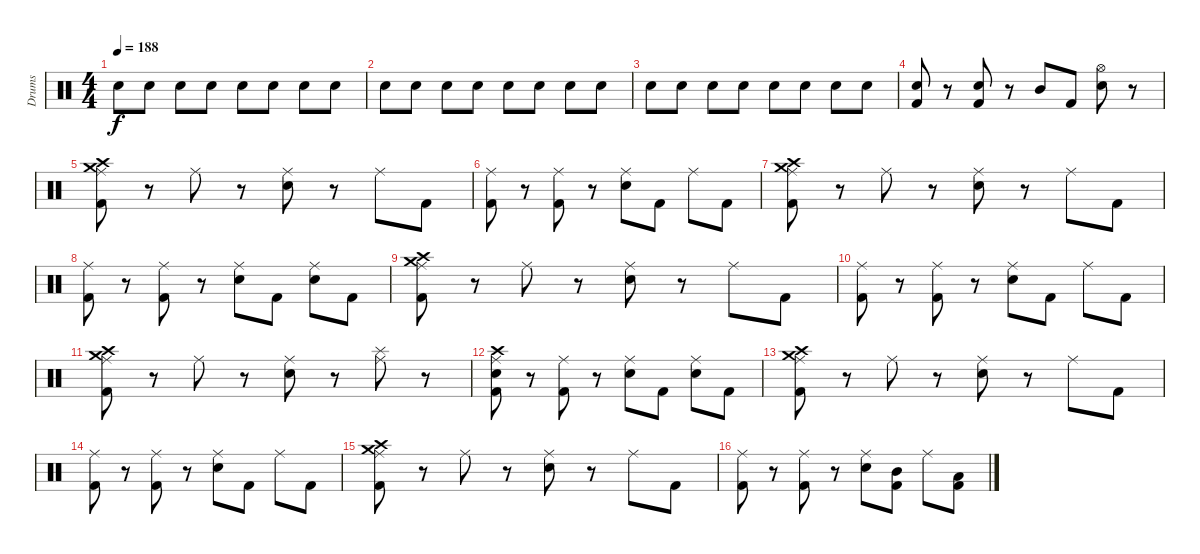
\track ("Drums" "Drums") {instrument percussion}
\staff {score}
\articulation defaults
\ts (4 4)
\tempo 188
\clef neutral
\ks c "Snare (hit) 2".8{dy f} "Snare (hit) 2".8 "Snare (hit) 2".8 "Snare (hit) 2".8 "Snare (hit) 2".8 "Snare (hit) 2".8 "Snare (hit) 2".8 "Snare (hit) 2".8
|
"Snare (hit) 2".8 "Snare (hit) 2".8 "Snare (hit) 2".8 "Snare (hit) 2".8 "Snare (hit) 2".8 "Snare (hit) 2".8 "Snare (hit) 2".8 "Snare (hit) 2".8 |
"Snare (hit) 2".8 "Snare (hit) 2".8 "Snare (hit) 2".8 "Snare (hit) 2".8 "Snare (hit) 2".8 "Snare (hit) 2".8 "Snare (hit) 2".8 "Snare (hit) 2".8 |
("Snare (hit) 2" "Kick (hit) 2").8 r.8 ("Snare (hit) 2" "Kick (hit) 2").8 r.8 "Mid Tom (hit)".8 "Kick (hit) 2".8 ("Hi-Hat (open)" "Snare (hit) 2").8 r.8 |
("Crash medium (hit)" "Crash high (hit)" "Ride (middle)" "Kick (hit) 2").8 r.8 "Ride (middle)".8 r.8 ("Ride (middle)" "Snare (hit) 2").8 r.8 "Ride (middle)".8 "Kick (hit) 2".8 |
("Ride (middle)" "Kick (hit) 2").8 r.8 ("Ride (middle)" "Kick (hit) 2").8 r.8 ("Ride (middle)" "Snare (hit) 2").8 "Kick (hit) 2".8 "Ride (middle)".8 "Kick (hit) 2".8 |
("Crash medium (hit)" "Crash high (hit)" "Ride (middle)" "Kick (hit) 2").8 r.8 "Ride (middle)".8 r.8 ("Ride (middle)" "Snare (hit) 2").8 r.8 "Ride (middle)".8 "Kick (hit) 2".8 |
("Ride (middle)" "Kick (hit) 2").8 r.8 ("Ride (middle)" "Kick (hit) 2").8 r.8 ("Ride (middle)" "Snare (hit) 2").8 "Kick (hit) 2".8 ("Ride (middle)" "Snare (hit) 2").8 "Kick (hit) 2".8 |
("Crash medium (hit)" "Crash high (hit)" "Ride (middle)" "Kick (hit) 2").8 r.8 "Ride (middle)".8 r.8 ("Ride (middle)" "Snare (hit) 2").8 r.8 "Ride (middle)".8 "Kick (hit) 2".8 |
("Ride (middle)" "Kick (hit) 2").8 r.8 ("Ride (middle)" "Kick (hit) 2").8 r.8 ("Ride (middle)" "Snare (hit) 2").8 "Kick (hit) 2".8 "Ride (middle)".8 "Kick (hit) 2".8 |
("Crash medium (hit)" "Crash high (hit)" "Ride (middle)" "Kick (hit) 2").8 r.8 "Ride (middle)".8 r.8 ("Ride (middle)" "Snare (hit) 2").8 r.8 ("Splash (hit)" "Ride (middle)").8 r.8 |
("Crash high (hit)" "Ride (middle)" "Snare (hit) 2" "Kick (hit) 2").8 r.8 ("Ride (middle)" "Kick (hit) 2").8 r.8 ("Ride (middle)" "Snare (hit) 2").8 "Kick (hit) 2".8 ("Ride (middle)" "Snare (hit) 2").8 "Kick (hit) 2".8 |
("Crash medium (hit)" "Crash high (hit)" "Ride (middle)" "Kick (hit) 2").8 r.8 "Ride (middle)".8 r.8 ("Ride (middle)" "Snare (hit) 2").8 r.8 "Ride (middle)".8 "Kick (hit) 2".8 |
("Ride (middle)" "Kick (hit) 2").8 r.8 ("Ride (middle)" "Kick (hit) 2").8 r.8 ("Ride (middle)" "Snare (hit) 2").8 "Kick (hit) 2".8 "Ride (middle)".8 "Kick (hit) 2".8 |
("Crash medium (hit)" "Crash high (hit)" "Ride (middle)" "Kick (hit) 2").8 r.8 "Ride (middle)".8 r.8 ("Ride (middle)" "Snare (hit) 2").8 r.8 "Ride (middle)".8 "Kick (hit) 2".8 |
("Ride (middle)" "Kick (hit) 2").8 r.8 ("Ride (middle)" "Kick (hit) 2").8 r.8 ("Ride (middle)" "Snare (hit) 2").8 ("Mid Tom (hit)" "Kick (hit) 2").8 "Ride (middle)".8 ("Low Tom (hit)" "Kick (hit) 2").8
